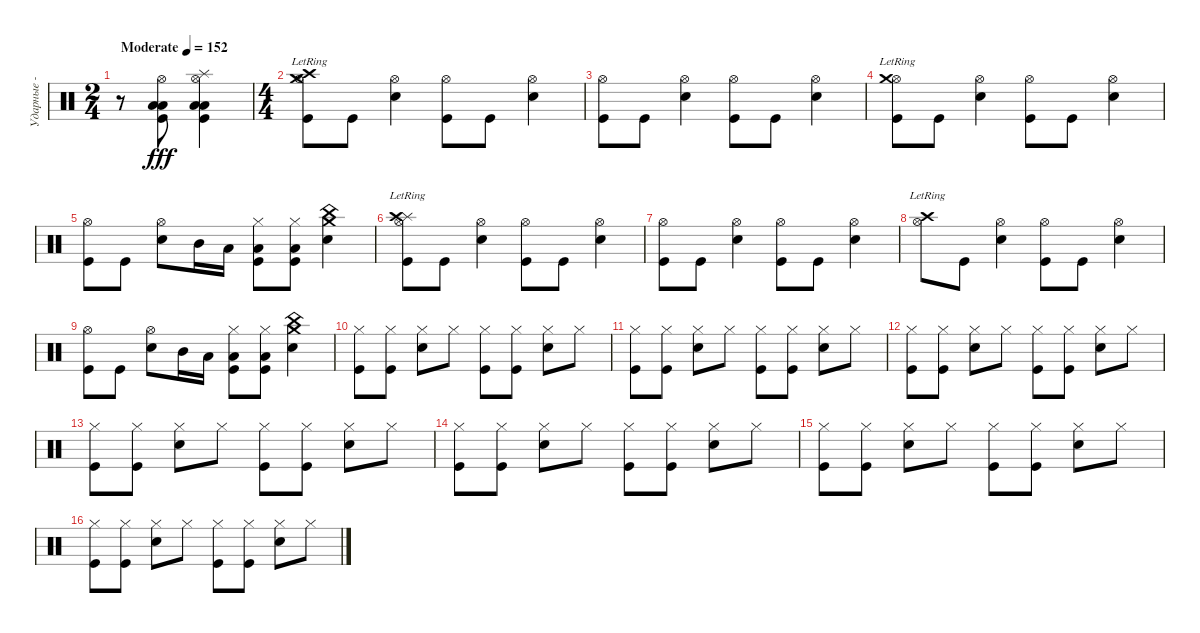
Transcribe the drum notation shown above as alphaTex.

\track ("Ударные - Трэвис" "Ударные - ") {instrument percussion}
\staff {score}
\articulation defaults
\ts (2 4)
\tempo (152 "Moderate")
\clef neutral
\ks c
r.8{dy fff} ("Hi-Hat (open)" "Low Floor Tom (hit)" "Low Tom (hit)" "Kick (hit)").8 ("Hi-Hat (open)" "Low Floor Tom (hit)" "Low Tom (hit)" "Kick (hit)" "Splash (hit)").4 |
\ts (4 4)
("Crash high (hit)"{lr} "Hi-Hat (open)" "Crash medium (hit)"{lr} "Kick (hit)").8 "Kick (hit)".8 ("Hi-Hat (open)" "Snare (hit) 2").4 ("Hi-Hat (open)" "Kick (hit)").8 "Kick (hit)".8 ("Hi-Hat (open)" "Snare (hit) 2").4 |
("Hi-Hat (open)" "Kick (hit)").8 "Kick (hit)".8 ("Hi-Hat (open)" "Snare (hit) 2").4 ("Hi-Hat (open)" "Kick (hit)").8 "Kick (hit)".8 ("Hi-Hat (open)" "Snare (hit) 2").4 |
("Hi-Hat (open)" "Crash medium (hit)"{lr} "Kick (hit)").8 "Kick (hit)".8 ("Hi-Hat (open)" "Snare (hit) 2").4 ("Hi-Hat (open)" "Kick (hit)").8 "Kick (hit)".8 ("Hi-Hat (open)" "Snare (hit) 2").4 |
("Hi-Hat (open)" "Kick (hit)").8 "Kick (hit)".8 ("Hi-Hat (open)" "Snare (hit) 2").8 "Mid Tom (hit)".16 "Low Tom (hit)".16 ("Hi-Hat (closed)" "Low Floor Tom (hit)" "Kick (hit)").8 ("Hi-Hat (closed)" "Low Floor Tom (hit)" "Kick (hit)").8 ("Crash medium (hit)" "China (hit)" "Snare (hit) 2").4 |
("Splash (hit)" "Hi-Hat (open)" "Crash high (hit)"{lr} "Kick (hit)").8 "Kick (hit)".8 ("Hi-Hat (open)" "Snare (hit) 2").4 ("Hi-Hat (open)" "Kick (hit)").8 "Kick (hit)".8 ("Hi-Hat (open)" "Snare (hit) 2").4 |
("Hi-Hat (open)" "Kick (hit)").8 "Kick (hit)".8 ("Hi-Hat (open)" "Snare (hit) 2").4 ("Hi-Hat (open)" "Kick (hit)").8 "Kick (hit)".8 ("Hi-Hat (open)" "Snare (hit) 2").4 |
("Crash high (hit)"{lr} "Hi-Hat (open)").8 "Kick (hit)".8 ("Hi-Hat (open)" "Snare (hit) 2").4 ("Hi-Hat (open)" "Kick (hit)").8 "Kick (hit)".8 ("Hi-Hat (open)" "Snare (hit) 2").4 |
("Hi-Hat (open)" "Kick (hit)").8 "Kick (hit)".8 ("Hi-Hat (open)" "Snare (hit) 2").8 "Mid Tom (hit)".16 "Low Tom (hit)".16 ("Hi-Hat (closed)" "Low Floor Tom (hit)" "Kick (hit)").8 ("Hi-Hat (closed)" "Low Floor Tom (hit)" "Kick (hit)").8 ("Crash medium (hit)" "China (hit)" "Snare (hit) 2").4 |
("Hi-Hat (closed)" "Kick (hit)").8 ("Hi-Hat (closed)" "Kick (hit)").8 ("Hi-Hat (closed)" "Snare (hit) 2").8 "Hi-Hat (closed)".8 ("Hi-Hat (closed)" "Kick (hit)").8 ("Hi-Hat (closed)" "Kick (hit)").8 ("Hi-Hat (closed)" "Snare (hit) 2").8 "Hi-Hat (closed)".8 |
("Hi-Hat (closed)" "Kick (hit)").8 ("Hi-Hat (closed)" "Kick (hit)").8 ("Hi-Hat (closed)" "Snare (hit) 2").8 "Hi-Hat (closed)".8 ("Hi-Hat (closed)" "Kick (hit)").8 ("Hi-Hat (closed)" "Kick (hit)").8 ("Hi-Hat (closed)" "Snare (hit) 2").8 "Hi-Hat (closed)".8 |
("Hi-Hat (closed)" "Kick (hit)").8 ("Hi-Hat (closed)" "Kick (hit)").8 ("Hi-Hat (closed)" "Snare (hit) 2").8 "Hi-Hat (closed)".8 ("Hi-Hat (closed)" "Kick (hit)").8 ("Hi-Hat (closed)" "Kick (hit)").8 ("Hi-Hat (closed)" "Snare (hit) 2").8 "Hi-Hat (closed)".8 |
("Hi-Hat (closed)" "Kick (hit)").8 ("Hi-Hat (closed)" "Kick (hit)").8 ("Hi-Hat (closed)" "Snare (hit) 2").8 "Hi-Hat (closed)".8 ("Hi-Hat (closed)" "Kick (hit)").8 ("Hi-Hat (closed)" "Kick (hit)").8 ("Hi-Hat (closed)" "Snare (hit) 2").8 "Hi-Hat (closed)".8 |
("Hi-Hat (closed)" "Kick (hit)").8 ("Hi-Hat (closed)" "Kick (hit)").8 ("Hi-Hat (closed)" "Snare (hit) 2").8 "Hi-Hat (closed)".8 ("Hi-Hat (closed)" "Kick (hit)").8 ("Hi-Hat (closed)" "Kick (hit)").8 ("Hi-Hat (closed)" "Snare (hit) 2").8 "Hi-Hat (closed)".8 |
("Hi-Hat (closed)" "Kick (hit)").8 ("Hi-Hat (closed)" "Kick (hit)").8 ("Hi-Hat (closed)" "Snare (hit) 2").8 "Hi-Hat (closed)".8 ("Hi-Hat (closed)" "Kick (hit)").8 ("Hi-Hat (closed)" "Kick (hit)").8 ("Hi-Hat (closed)" "Snare (hit) 2").8 "Hi-Hat (closed)".8 |
("Hi-Hat (closed)" "Kick (hit)").8 ("Hi-Hat (closed)" "Kick (hit)").8 ("Hi-Hat (closed)" "Snare (hit) 2").8 "Hi-Hat (closed)".8 ("Hi-Hat (closed)" "Kick (hit)").8 ("Hi-Hat (closed)" "Kick (hit)").8 ("Hi-Hat (closed)" "Snare (hit) 2").8 "Hi-Hat (closed)".8
